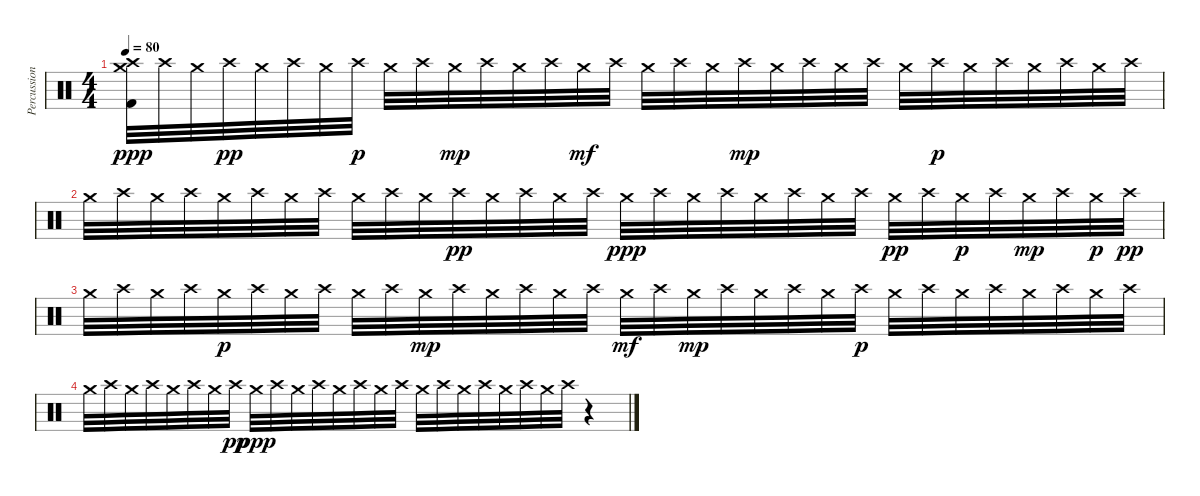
\track ("Percussion" "Percussion") {instrument percussion}
\staff {score}
\articulation defaults
\ts (4 4)
\tempo 80
\clef neutral
\ks c
("Kick (hit) 2" "Crash high (hit)" "Crash medium (hit)").32{dy ppp} "Crash high (hit)".32 "Crash medium (hit)".32 "Crash high (hit)".32{dy pp} "Crash medium (hit)".32 "Crash high (hit)".32 "Crash medium (hit)".32 "Crash high (hit)".32{dy p} "Crash medium (hit)".32 "Crash high (hit)".32 "Crash medium (hit)".32{dy mp} "Crash high (hit)".32 "Crash medium (hit)".32 "Crash high (hit)".32 "Crash medium (hit)".32{dy mf} "Crash high (hit)".32 "Crash medium (hit)".32 "Crash high (hit)".32 "Crash medium (hit)".32 "Crash high (hit)".32{dy mp} "Crash medium (hit)".32 "Crash high (hit)".32 "Crash medium (hit)".32 "Crash high (hit)".32 "Crash medium (hit)".32 "Crash high (hit)".32{dy p} "Crash medium (hit)".32 "Crash high (hit)".32 "Crash medium (hit)".32 "Crash high (hit)".32 "Crash medium (hit)".32 "Crash high (hit)".32 |
"Crash medium (hit)".32 "Crash high (hit)".32 "Crash medium (hit)".32 "Crash high (hit)".32 "Crash medium (hit)".32 "Crash high (hit)".32 "Crash medium (hit)".32 "Crash high (hit)".32 "Crash medium (hit)".32 "Crash high (hit)".32 "Crash medium (hit)".32 "Crash high (hit)".32{dy pp} "Crash medium (hit)".32 "Crash high (hit)".32 "Crash medium (hit)".32 "Crash high (hit)".32 "Crash medium (hit)".32{dy ppp} "Crash high (hit)".32 "Crash medium (hit)".32 "Crash high (hit)".32 "Crash medium (hit)".32 "Crash high (hit)".32 "Crash medium (hit)".32 "Crash high (hit)".32 "Crash medium (hit)".32{dy pp} "Crash high (hit)".32 "Crash medium (hit)".32{dy p} "Crash high (hit)".32 "Crash medium (hit)".32{dy mp} "Crash high (hit)".32 "Crash medium (hit)".32{dy p} "Crash high (hit)".32{dy pp} |
"Crash medium (hit)".32 "Crash high (hit)".32 "Crash medium (hit)".32 "Crash high (hit)".32 "Crash medium (hit)".32{dy p} "Crash high (hit)".32 "Crash medium (hit)".32 "Crash high (hit)".32 "Crash medium (hit)".32 "Crash high (hit)".32 "Crash medium (hit)".32{dy mp} "Crash high (hit)".32 "Crash medium (hit)".32 "Crash high (hit)".32 "Crash medium (hit)".32 "Crash high (hit)".32 "Crash medium (hit)".32{dy mf} "Crash high (hit)".32 "Crash medium (hit)".32{dy mp} "Crash high (hit)".32 "Crash medium (hit)".32 "Crash high (hit)".32 "Crash medium (hit)".32 "Crash high (hit)".32{dy p} "Crash medium (hit)".32 "Crash high (hit)".32 "Crash medium (hit)".32 "Crash high (hit)".32 "Crash medium (hit)".32 "Crash high (hit)".32 "Crash medium (hit)".32 "Crash high (hit)".32 |
"Crash medium (hit)".32 "Crash high (hit)".32 "Crash medium (hit)".32 "Crash high (hit)".32 "Crash medium (hit)".32 "Crash high (hit)".32 "Crash medium (hit)".32 "Crash high (hit)".32{dy pp} "Crash medium (hit)".32{dy ppp} "Crash high (hit)".32 "Crash medium (hit)".32 "Crash high (hit)".32 "Crash medium (hit)".32 "Crash high (hit)".32 "Crash medium (hit)".32 "Crash high (hit)".32 "Crash medium (hit)".32 "Crash high (hit)".32 "Crash medium (hit)".32 "Crash high (hit)".32 "Crash medium (hit)".32 "Crash high (hit)".32 "Crash medium (hit)".32 "Crash high (hit)".32 r.4
